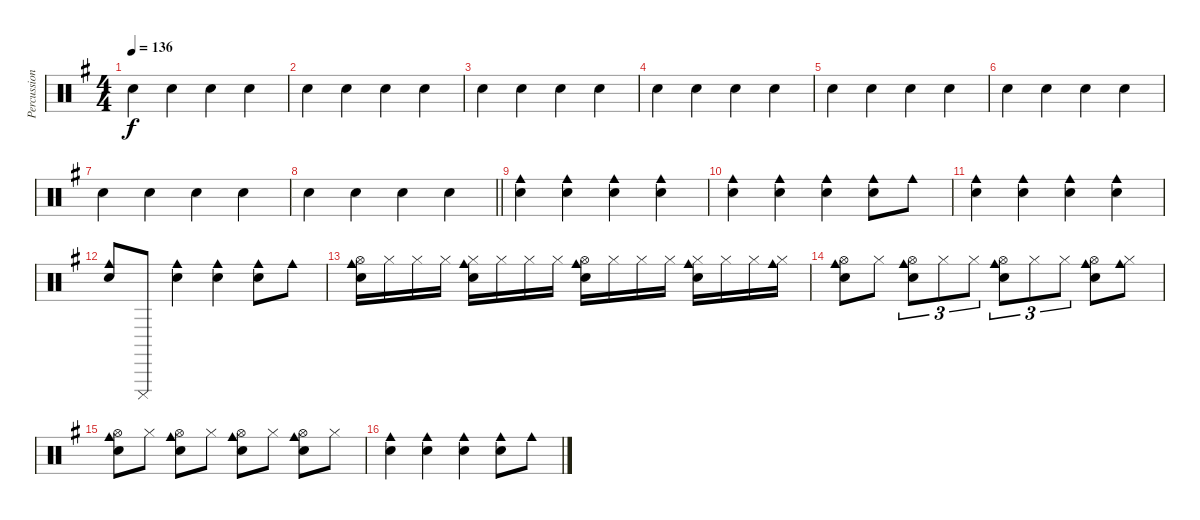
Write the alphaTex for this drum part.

\track ("Percussions" "Percussion") {instrument percussion}
\staff {score}
\articulation defaults
\ts (4 4)
\tempo 136
\clef neutral
\ks g "Hand Clap (hit)".4{dy f} "Hand Clap (hit)".4 "Hand Clap (hit)".4 "Hand Clap (hit)".4
|
"Hand Clap (hit)".4 "Hand Clap (hit)".4 "Hand Clap (hit)".4 "Hand Clap (hit)".4 |
"Hand Clap (hit)".4 "Hand Clap (hit)".4 "Hand Clap (hit)".4 "Hand Clap (hit)".4 |
"Hand Clap (hit)".4 "Hand Clap (hit)".4 "Hand Clap (hit)".4 "Hand Clap (hit)".4 |
"Hand Clap (hit)".4 "Hand Clap (hit)".4 "Hand Clap (hit)".4 "Hand Clap (hit)".4 |
"Hand Clap (hit)".4 "Hand Clap (hit)".4 "Hand Clap (hit)".4 "Hand Clap (hit)".4 |
"Hand Clap (hit)".4 "Hand Clap (hit)".4 "Hand Clap (hit)".4 "Hand Clap (hit)".4 |
\barLineRight lightlight "Hand Clap (hit)".4 "Hand Clap (hit)".4 "Hand Clap (hit)".4 "Hand Clap (hit)".4
|
("Hand Clap (hit)" "Cowbell medium (hit)").4 ("Hand Clap (hit)" "Cowbell medium (hit)").4 ("Hand Clap (hit)" "Cowbell medium (hit)").4 ("Hand Clap (hit)" "Cowbell medium (hit)").4 |
("Hand Clap (hit)" "Cowbell medium (hit)").4 ("Hand Clap (hit)" "Cowbell medium (hit)").4 ("Hand Clap (hit)" "Cowbell medium (hit)").4 ("Hand Clap (hit)" "Cowbell medium (hit)").8 "Cowbell medium (hit)".8 |
("Hand Clap (hit)" "Cowbell medium (hit)").4 ("Hand Clap (hit)" "Cowbell medium (hit)").4 ("Hand Clap (hit)" "Cowbell medium (hit)").4 ("Hand Clap (hit)" "Cowbell medium (hit)").4 |
("Hand Clap (hit)" "Cowbell medium (hit)").8 "Cuica (mute)".8 ("Hand Clap (hit)" "Cowbell medium (hit)").4 ("Hand Clap (hit)" "Cowbell medium (hit)").4 ("Hand Clap (hit)" "Cowbell medium (hit)").8 "Cowbell medium (hit)".8 |
("Hand Clap (hit)" "Cowbell medium (hit)" "Hi-Hat (open)").16 "Hi-Hat (closed)".16 "Hi-Hat (closed)".16 "Hi-Hat (closed)".16 ("Hand Clap (hit)" "Cowbell medium (hit)" "Hi-Hat (closed)").16 "Hi-Hat (closed)".16 "Hi-Hat (closed)".16 "Hi-Hat (closed)".16 ("Hand Clap (hit)" "Cowbell medium (hit)" "Hi-Hat (open)").16 "Hi-Hat (closed)".16 "Hi-Hat (closed)".16 "Hi-Hat (closed)".16 ("Hand Clap (hit)" "Cowbell medium (hit)" "Hi-Hat (closed)").16 "Hi-Hat (closed)".16 "Hi-Hat (closed)".16 ("Cowbell medium (hit)" "Hi-Hat (closed)").16 |
("Hand Clap (hit)" "Cowbell medium (hit)" "Hi-Hat (open)").8 "Hi-Hat (closed)".8 ("Hand Clap (hit)" "Cowbell medium (hit)" "Hi-Hat (open)").8{tu (3 2)} "Hi-Hat (closed)".8{tu (3 2)} "Hi-Hat (closed)".8{tu (3 2)} ("Hand Clap (hit)" "Cowbell medium (hit)" "Hi-Hat (open)").8{tu (3 2)} "Hi-Hat (closed)".8{tu (3 2)} "Hi-Hat (closed)".8{tu (3 2)} ("Hand Clap (hit)" "Cowbell medium (hit)" "Hi-Hat (open)").8 ("Cowbell medium (hit)" "Hi-Hat (closed)").8 |
("Hand Clap (hit)" "Cowbell medium (hit)" "Hi-Hat (open)").8 "Hi-Hat (closed)".8 ("Hand Clap (hit)" "Cowbell medium (hit)" "Hi-Hat (open)").8 "Hi-Hat (closed)".8 ("Hand Clap (hit)" "Cowbell medium (hit)" "Hi-Hat (open)").8 "Hi-Hat (closed)".8 ("Hand Clap (hit)" "Cowbell medium (hit)" "Hi-Hat (open)").8 "Hi-Hat (closed)".8 |
("Hand Clap (hit)" "Cowbell medium (hit)").4 ("Hand Clap (hit)" "Cowbell medium (hit)").4 ("Hand Clap (hit)" "Cowbell medium (hit)").4 ("Hand Clap (hit)" "Cowbell medium (hit)").8 "Cowbell medium (hit)".8
